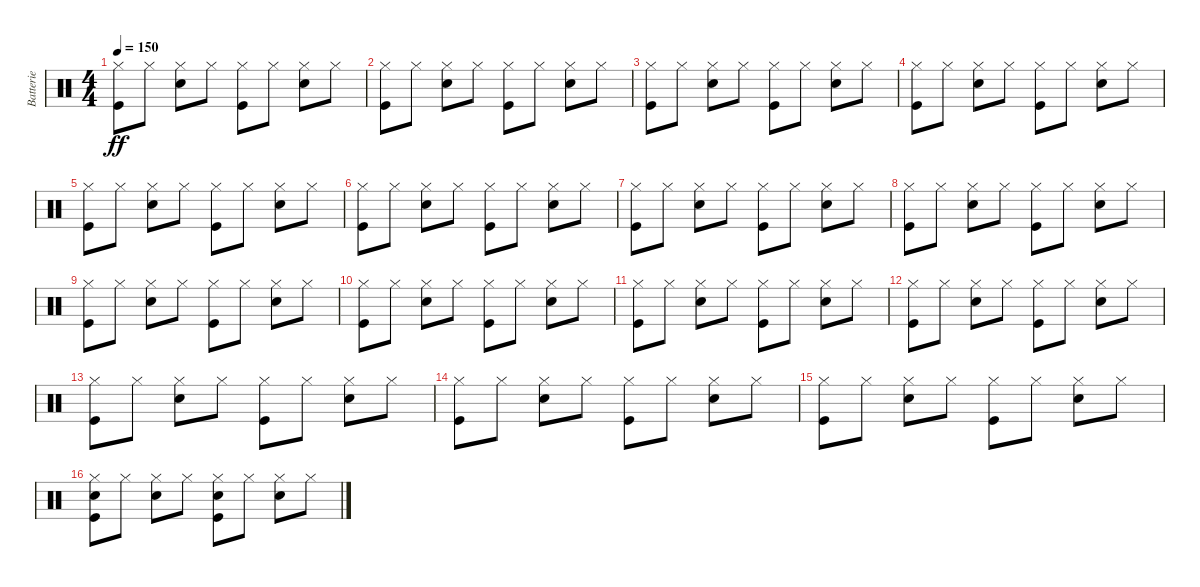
\track ("Batterie" "Batterie") {instrument percussion}
\staff {score}
\articulation defaults
\ts (4 4)
\tempo 150
\clef neutral
\ks c
("Kick (hit)" "Hi-Hat (closed)").8{dy ff} "Hi-Hat (closed)".8 ("Electric Snare (hit)" "Hi-Hat (closed)").8 "Hi-Hat (closed)".8 ("Kick (hit)" "Hi-Hat (closed)").8 "Hi-Hat (closed)".8 ("Electric Snare (hit)" "Hi-Hat (closed)").8 "Hi-Hat (closed)".8 |
("Kick (hit)" "Hi-Hat (closed)").8 "Hi-Hat (closed)".8 ("Electric Snare (hit)" "Hi-Hat (closed)").8 "Hi-Hat (closed)".8 ("Kick (hit)" "Hi-Hat (closed)").8 "Hi-Hat (closed)".8 ("Electric Snare (hit)" "Hi-Hat (closed)").8 "Hi-Hat (closed)".8 |
("Kick (hit)" "Hi-Hat (closed)").8 "Hi-Hat (closed)".8 ("Electric Snare (hit)" "Hi-Hat (closed)").8 "Hi-Hat (closed)".8 ("Kick (hit)" "Hi-Hat (closed)").8 "Hi-Hat (closed)".8 ("Electric Snare (hit)" "Hi-Hat (closed)").8 "Hi-Hat (closed)".8 |
("Kick (hit)" "Hi-Hat (closed)").8 "Hi-Hat (closed)".8 ("Electric Snare (hit)" "Hi-Hat (closed)").8 "Hi-Hat (closed)".8 ("Kick (hit)" "Hi-Hat (closed)").8 "Hi-Hat (closed)".8 ("Electric Snare (hit)" "Hi-Hat (closed)").8 "Hi-Hat (closed)".8 |
("Kick (hit)" "Hi-Hat (closed)").8 "Hi-Hat (closed)".8 ("Electric Snare (hit)" "Hi-Hat (closed)").8 "Hi-Hat (closed)".8 ("Kick (hit)" "Hi-Hat (closed)").8 "Hi-Hat (closed)".8 ("Electric Snare (hit)" "Hi-Hat (closed)").8 "Hi-Hat (closed)".8 |
("Kick (hit)" "Hi-Hat (closed)").8 "Hi-Hat (closed)".8 ("Electric Snare (hit)" "Hi-Hat (closed)").8 "Hi-Hat (closed)".8 ("Kick (hit)" "Hi-Hat (closed)").8 "Hi-Hat (closed)".8 ("Electric Snare (hit)" "Hi-Hat (closed)").8 "Hi-Hat (closed)".8 |
("Kick (hit)" "Hi-Hat (closed)").8 "Hi-Hat (closed)".8 ("Electric Snare (hit)" "Hi-Hat (closed)").8 "Hi-Hat (closed)".8 ("Kick (hit)" "Hi-Hat (closed)").8 "Hi-Hat (closed)".8 ("Electric Snare (hit)" "Hi-Hat (closed)").8 "Hi-Hat (closed)".8 |
("Kick (hit)" "Hi-Hat (closed)").8 "Hi-Hat (closed)".8 ("Electric Snare (hit)" "Hi-Hat (closed)").8 "Hi-Hat (closed)".8 ("Kick (hit)" "Hi-Hat (closed)").8 "Hi-Hat (closed)".8 ("Electric Snare (hit)" "Hi-Hat (closed)").8 "Hi-Hat (closed)".8 |
("Kick (hit)" "Hi-Hat (closed)").8 "Hi-Hat (closed)".8 ("Electric Snare (hit)" "Hi-Hat (closed)").8 "Hi-Hat (closed)".8 ("Kick (hit)" "Hi-Hat (closed)").8 "Hi-Hat (closed)".8 ("Electric Snare (hit)" "Hi-Hat (closed)").8 "Hi-Hat (closed)".8 |
("Kick (hit)" "Hi-Hat (closed)").8 "Hi-Hat (closed)".8 ("Electric Snare (hit)" "Hi-Hat (closed)").8 "Hi-Hat (closed)".8 ("Kick (hit)" "Hi-Hat (closed)").8 "Hi-Hat (closed)".8 ("Electric Snare (hit)" "Hi-Hat (closed)").8 "Hi-Hat (closed)".8 |
("Kick (hit)" "Hi-Hat (closed)").8 "Hi-Hat (closed)".8 ("Electric Snare (hit)" "Hi-Hat (closed)").8 "Hi-Hat (closed)".8 ("Kick (hit)" "Hi-Hat (closed)").8 "Hi-Hat (closed)".8 ("Electric Snare (hit)" "Hi-Hat (closed)").8 "Hi-Hat (closed)".8 |
("Kick (hit)" "Hi-Hat (closed)").8 "Hi-Hat (closed)".8 ("Electric Snare (hit)" "Hi-Hat (closed)").8 "Hi-Hat (closed)".8 ("Kick (hit)" "Hi-Hat (closed)").8 "Hi-Hat (closed)".8 ("Electric Snare (hit)" "Hi-Hat (closed)").8 "Hi-Hat (closed)".8 |
("Kick (hit)" "Hi-Hat (closed)").8 "Hi-Hat (closed)".8 ("Electric Snare (hit)" "Hi-Hat (closed)").8 "Hi-Hat (closed)".8 ("Kick (hit)" "Hi-Hat (closed)").8 "Hi-Hat (closed)".8 ("Electric Snare (hit)" "Hi-Hat (closed)").8 "Hi-Hat (closed)".8 |
("Kick (hit)" "Hi-Hat (closed)").8 "Hi-Hat (closed)".8 ("Electric Snare (hit)" "Hi-Hat (closed)").8 "Hi-Hat (closed)".8 ("Kick (hit)" "Hi-Hat (closed)").8 "Hi-Hat (closed)".8 ("Electric Snare (hit)" "Hi-Hat (closed)").8 "Hi-Hat (closed)".8 |
("Kick (hit)" "Hi-Hat (closed)").8 "Hi-Hat (closed)".8 ("Electric Snare (hit)" "Hi-Hat (closed)").8 "Hi-Hat (closed)".8 ("Kick (hit)" "Hi-Hat (closed)").8 "Hi-Hat (closed)".8 ("Electric Snare (hit)" "Hi-Hat (closed)").8 "Hi-Hat (closed)".8 |
("Kick (hit)" "Hi-Hat (closed)" "Electric Snare (hit)").8 "Hi-Hat (closed)".8 ("Electric Snare (hit)" "Hi-Hat (closed)").8 "Hi-Hat (closed)".8 ("Kick (hit)" "Hi-Hat (closed)" "Electric Snare (hit)").8 "Hi-Hat (closed)".8 ("Electric Snare (hit)" "Hi-Hat (closed)").8 "Hi-Hat (closed)".8
